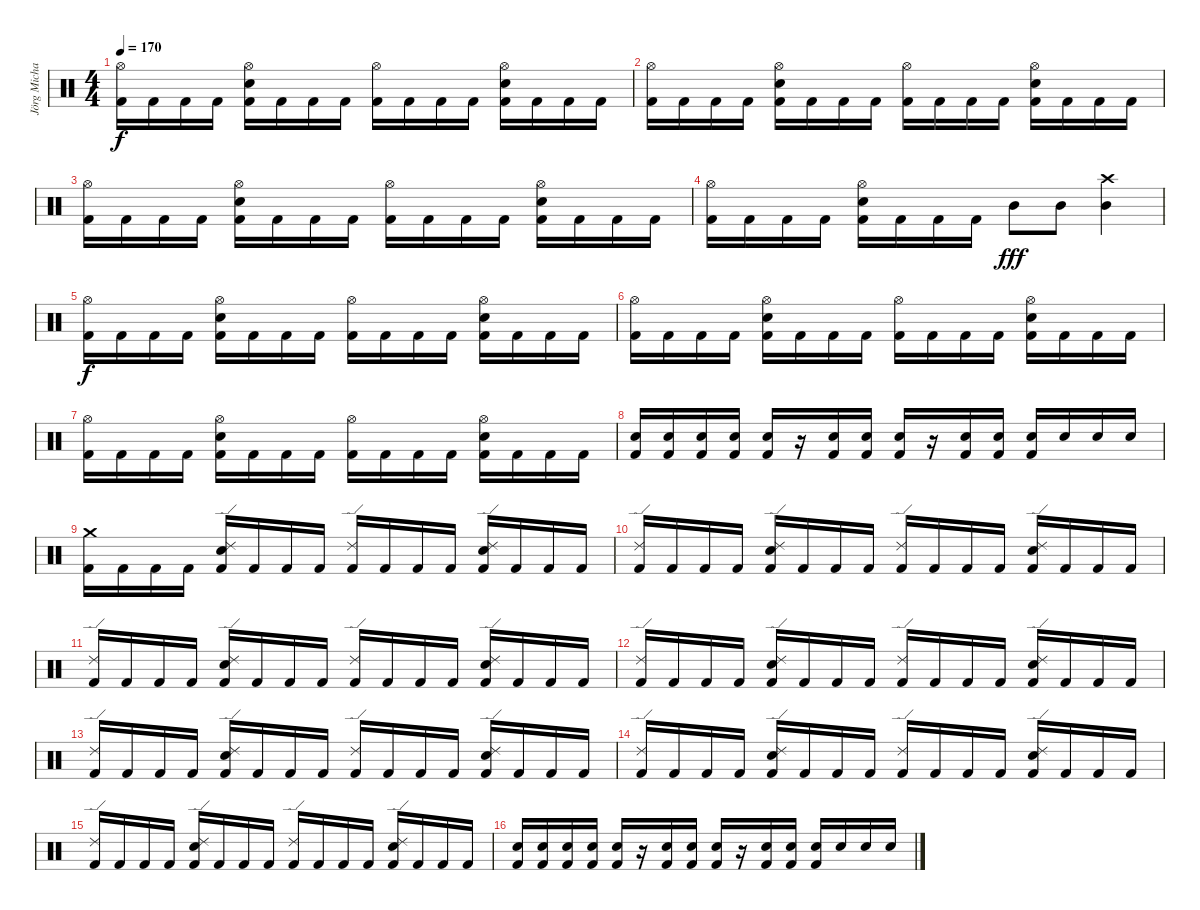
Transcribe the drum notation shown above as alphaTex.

\track ("Jörg Michael" "Jörg Micha") {instrument percussion}
\staff {score}
\articulation defaults
\ts (4 4)
\tempo 170
\clef neutral
\ks c
("Hi-Hat (open)" "Kick (hit) 2").16{dy f} "Kick (hit) 2".16 "Kick (hit) 2".16 "Kick (hit) 2".16 ("Hi-Hat (open)" "Snare (hit) 2" "Kick (hit) 2").16 "Kick (hit) 2".16 "Kick (hit) 2".16 "Kick (hit) 2".16 ("Hi-Hat (open)" "Kick (hit) 2").16 "Kick (hit) 2".16 "Kick (hit) 2".16 "Kick (hit) 2".16 ("Hi-Hat (open)" "Snare (hit) 2" "Kick (hit) 2").16 "Kick (hit) 2".16 "Kick (hit) 2".16 "Kick (hit) 2".16 |
("Hi-Hat (open)" "Kick (hit) 2").16 "Kick (hit) 2".16 "Kick (hit) 2".16 "Kick (hit) 2".16 ("Hi-Hat (open)" "Snare (hit) 2" "Kick (hit) 2").16 "Kick (hit) 2".16 "Kick (hit) 2".16 "Kick (hit) 2".16 ("Hi-Hat (open)" "Kick (hit) 2").16 "Kick (hit) 2".16 "Kick (hit) 2".16 "Kick (hit) 2".16 ("Hi-Hat (open)" "Snare (hit) 2" "Kick (hit) 2").16 "Kick (hit) 2".16 "Kick (hit) 2".16 "Kick (hit) 2".16 |
("Hi-Hat (open)" "Kick (hit) 2").16 "Kick (hit) 2".16 "Kick (hit) 2".16 "Kick (hit) 2".16 ("Hi-Hat (open)" "Snare (hit) 2" "Kick (hit) 2").16 "Kick (hit) 2".16 "Kick (hit) 2".16 "Kick (hit) 2".16 ("Hi-Hat (open)" "Kick (hit) 2").16 "Kick (hit) 2".16 "Kick (hit) 2".16 "Kick (hit) 2".16 ("Hi-Hat (open)" "Snare (hit) 2" "Kick (hit) 2").16 "Kick (hit) 2".16 "Kick (hit) 2".16 "Kick (hit) 2".16 |
("Hi-Hat (open)" "Kick (hit) 2").16 "Kick (hit) 2".16 "Kick (hit) 2".16 "Kick (hit) 2".16 ("Hi-Hat (open)" "Snare (hit) 2" "Kick (hit) 2").16 "Kick (hit) 2".16 "Kick (hit) 2".16 "Kick (hit) 2".16 "Mid Tom (hit)".8{dy fff} "Mid Tom (hit)".8 ("Crash high (hit)" "Mid Tom (hit)").4 |
("Hi-Hat (open)" "Kick (hit) 2").16{dy f} "Kick (hit) 2".16 "Kick (hit) 2".16 "Kick (hit) 2".16 ("Hi-Hat (open)" "Snare (hit) 2" "Kick (hit) 2").16 "Kick (hit) 2".16 "Kick (hit) 2".16 "Kick (hit) 2".16 ("Hi-Hat (open)" "Kick (hit) 2").16 "Kick (hit) 2".16 "Kick (hit) 2".16 "Kick (hit) 2".16 ("Hi-Hat (open)" "Snare (hit) 2" "Kick (hit) 2").16 "Kick (hit) 2".16 "Kick (hit) 2".16 "Kick (hit) 2".16 |
("Hi-Hat (open)" "Kick (hit) 2").16 "Kick (hit) 2".16 "Kick (hit) 2".16 "Kick (hit) 2".16 ("Hi-Hat (open)" "Snare (hit) 2" "Kick (hit) 2").16 "Kick (hit) 2".16 "Kick (hit) 2".16 "Kick (hit) 2".16 ("Hi-Hat (open)" "Kick (hit) 2").16 "Kick (hit) 2".16 "Kick (hit) 2".16 "Kick (hit) 2".16 ("Hi-Hat (open)" "Snare (hit) 2" "Kick (hit) 2").16 "Kick (hit) 2".16 "Kick (hit) 2".16 "Kick (hit) 2".16 |
("Hi-Hat (open)" "Kick (hit) 2").16 "Kick (hit) 2".16 "Kick (hit) 2".16 "Kick (hit) 2".16 ("Hi-Hat (open)" "Snare (hit) 2" "Kick (hit) 2").16 "Kick (hit) 2".16 "Kick (hit) 2".16 "Kick (hit) 2".16 ("Hi-Hat (open)" "Kick (hit) 2").16 "Kick (hit) 2".16 "Kick (hit) 2".16 "Kick (hit) 2".16 ("Hi-Hat (open)" "Snare (hit) 2" "Kick (hit) 2").16 "Kick (hit) 2".16 "Kick (hit) 2".16 "Kick (hit) 2".16 |
("Snare (hit) 2" "Kick (hit) 2").16 ("Snare (hit) 2" "Kick (hit) 2").16 ("Snare (hit) 2" "Kick (hit) 2").16 ("Snare (hit) 2" "Kick (hit) 2").16 ("Snare (hit) 2" "Kick (hit) 2").16 r.16 ("Snare (hit) 2" "Kick (hit) 2").16 ("Snare (hit) 2" "Kick (hit) 2").16 ("Snare (hit) 2" "Kick (hit) 2").16 r.16 ("Snare (hit) 2" "Kick (hit) 2").16 ("Snare (hit) 2" "Kick (hit) 2").16 ("Snare (hit) 2" "Kick (hit) 2").16 "Snare (hit) 2".16 "Snare (hit) 2".16 "Snare (hit) 2".16 |
("Crash medium (hit)" "Kick (hit) 2").16 "Kick (hit) 2".16 "Kick (hit) 2".16 "Kick (hit) 2".16 ("Ride (edge) 2" "Snare (hit) 2" "Kick (hit) 2").16 "Kick (hit) 2".16 "Kick (hit) 2".16 "Kick (hit) 2".16 ("Ride (edge) 2" "Kick (hit) 2").16 "Kick (hit) 2".16 "Kick (hit) 2".16 "Kick (hit) 2".16 ("Ride (edge) 2" "Snare (hit) 2" "Kick (hit) 2").16 "Kick (hit) 2".16 "Kick (hit) 2".16 "Kick (hit) 2".16 |
("Ride (edge) 2" "Kick (hit) 2").16 "Kick (hit) 2".16 "Kick (hit) 2".16 "Kick (hit) 2".16 ("Ride (edge) 2" "Snare (hit) 2" "Kick (hit) 2").16 "Kick (hit) 2".16 "Kick (hit) 2".16 "Kick (hit) 2".16 ("Ride (edge) 2" "Kick (hit) 2").16 "Kick (hit) 2".16 "Kick (hit) 2".16 "Kick (hit) 2".16 ("Ride (edge) 2" "Snare (hit) 2" "Kick (hit) 2").16 "Kick (hit) 2".16 "Kick (hit) 2".16 "Kick (hit) 2".16 |
("Ride (edge) 2" "Kick (hit) 2").16 "Kick (hit) 2".16 "Kick (hit) 2".16 "Kick (hit) 2".16 ("Ride (edge) 2" "Snare (hit) 2" "Kick (hit) 2").16 "Kick (hit) 2".16 "Kick (hit) 2".16 "Kick (hit) 2".16 ("Ride (edge) 2" "Kick (hit) 2").16 "Kick (hit) 2".16 "Kick (hit) 2".16 "Kick (hit) 2".16 ("Ride (edge) 2" "Snare (hit) 2" "Kick (hit) 2").16 "Kick (hit) 2".16 "Kick (hit) 2".16 "Kick (hit) 2".16 |
("Ride (edge) 2" "Kick (hit) 2").16 "Kick (hit) 2".16 "Kick (hit) 2".16 "Kick (hit) 2".16 ("Ride (edge) 2" "Snare (hit) 2" "Kick (hit) 2").16 "Kick (hit) 2".16 "Kick (hit) 2".16 "Kick (hit) 2".16 ("Ride (edge) 2" "Kick (hit) 2").16 "Kick (hit) 2".16 "Kick (hit) 2".16 "Kick (hit) 2".16 ("Ride (edge) 2" "Snare (hit) 2" "Kick (hit) 2").16 "Kick (hit) 2".16 "Kick (hit) 2".16 "Kick (hit) 2".16 |
("Ride (edge) 2" "Kick (hit) 2").16 "Kick (hit) 2".16 "Kick (hit) 2".16 "Kick (hit) 2".16 ("Ride (edge) 2" "Snare (hit) 2" "Kick (hit) 2").16 "Kick (hit) 2".16 "Kick (hit) 2".16 "Kick (hit) 2".16 ("Ride (edge) 2" "Kick (hit) 2").16 "Kick (hit) 2".16 "Kick (hit) 2".16 "Kick (hit) 2".16 ("Ride (edge) 2" "Snare (hit) 2" "Kick (hit) 2").16 "Kick (hit) 2".16 "Kick (hit) 2".16 "Kick (hit) 2".16 |
("Ride (edge) 2" "Kick (hit) 2").16 "Kick (hit) 2".16 "Kick (hit) 2".16 "Kick (hit) 2".16 ("Ride (edge) 2" "Snare (hit) 2" "Kick (hit) 2").16 "Kick (hit) 2".16 "Kick (hit) 2".16 "Kick (hit) 2".16 ("Ride (edge) 2" "Kick (hit) 2").16 "Kick (hit) 2".16 "Kick (hit) 2".16 "Kick (hit) 2".16 ("Ride (edge) 2" "Snare (hit) 2" "Kick (hit) 2").16 "Kick (hit) 2".16 "Kick (hit) 2".16 "Kick (hit) 2".16 |
("Ride (edge) 2" "Kick (hit) 2").16 "Kick (hit) 2".16 "Kick (hit) 2".16 "Kick (hit) 2".16 ("Ride (edge) 2" "Snare (hit) 2" "Kick (hit) 2").16 "Kick (hit) 2".16 "Kick (hit) 2".16 "Kick (hit) 2".16 ("Ride (edge) 2" "Kick (hit) 2").16 "Kick (hit) 2".16 "Kick (hit) 2".16 "Kick (hit) 2".16 ("Ride (edge) 2" "Snare (hit) 2" "Kick (hit) 2").16 "Kick (hit) 2".16 "Kick (hit) 2".16 "Kick (hit) 2".16 |
("Snare (hit) 2" "Kick (hit) 2").16 ("Snare (hit) 2" "Kick (hit) 2").16 ("Snare (hit) 2" "Kick (hit) 2").16 ("Snare (hit) 2" "Kick (hit) 2").16 ("Snare (hit) 2" "Kick (hit) 2").16 r.16 ("Snare (hit) 2" "Kick (hit) 2").16 ("Snare (hit) 2" "Kick (hit) 2").16 ("Snare (hit) 2" "Kick (hit) 2").16 r.16 ("Snare (hit) 2" "Kick (hit) 2").16 ("Snare (hit) 2" "Kick (hit) 2").16 ("Snare (hit) 2" "Kick (hit) 2").16 "Snare (hit) 2".16 "Snare (hit) 2".16 "Snare (hit) 2".16
